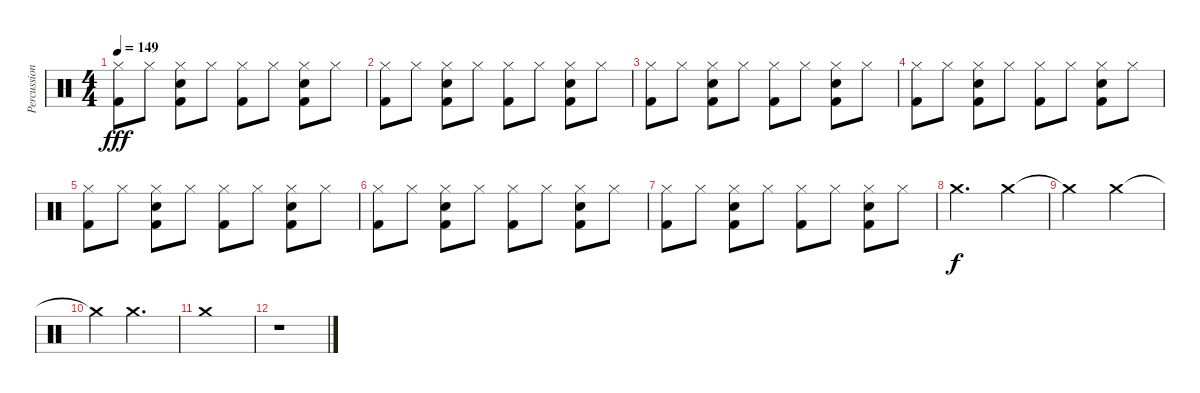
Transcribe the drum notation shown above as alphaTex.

\track ("Percussion" "Percussion") {instrument percussion}
\staff {score}
\articulation defaults
\ts (4 4)
\tempo 149
\clef neutral
\ks c
("Hi-Hat (closed)" "Kick (hit) 2").8{dy fff} "Hi-Hat (closed)".8 ("Hi-Hat (closed)" "Snare (hit) 2" "Kick (hit) 2").8 "Hi-Hat (closed)".8 ("Hi-Hat (closed)" "Kick (hit) 2").8 "Hi-Hat (closed)".8 ("Hi-Hat (closed)" "Snare (hit) 2" "Kick (hit) 2").8 "Hi-Hat (closed)".8 |
("Hi-Hat (closed)" "Kick (hit) 2").8 "Hi-Hat (closed)".8 ("Hi-Hat (closed)" "Snare (hit) 2" "Kick (hit) 2").8 "Hi-Hat (closed)".8 ("Hi-Hat (closed)" "Kick (hit) 2").8 "Hi-Hat (closed)".8 ("Hi-Hat (closed)" "Snare (hit) 2" "Kick (hit) 2").8 "Hi-Hat (closed)".8 |
("Hi-Hat (closed)" "Kick (hit) 2").8 "Hi-Hat (closed)".8 ("Hi-Hat (closed)" "Snare (hit) 2" "Kick (hit) 2").8 "Hi-Hat (closed)".8 ("Hi-Hat (closed)" "Kick (hit) 2").8 "Hi-Hat (closed)".8 ("Hi-Hat (closed)" "Snare (hit) 2" "Kick (hit) 2").8 "Hi-Hat (closed)".8 |
("Hi-Hat (closed)" "Kick (hit) 2").8 "Hi-Hat (closed)".8 ("Hi-Hat (closed)" "Snare (hit) 2" "Kick (hit) 2").8 "Hi-Hat (closed)".8 ("Hi-Hat (closed)" "Kick (hit) 2").8 "Hi-Hat (closed)".8 ("Hi-Hat (closed)" "Snare (hit) 2" "Kick (hit) 2").8 "Hi-Hat (closed)".8 |
("Hi-Hat (closed)" "Kick (hit) 2").8 "Hi-Hat (closed)".8 ("Hi-Hat (closed)" "Snare (hit) 2" "Kick (hit) 2").8 "Hi-Hat (closed)".8 ("Hi-Hat (closed)" "Kick (hit) 2").8 "Hi-Hat (closed)".8 ("Hi-Hat (closed)" "Snare (hit) 2" "Kick (hit) 2").8 "Hi-Hat (closed)".8 |
("Hi-Hat (closed)" "Kick (hit) 2").8 "Hi-Hat (closed)".8 ("Hi-Hat (closed)" "Snare (hit) 2" "Kick (hit) 2").8 "Hi-Hat (closed)".8 ("Hi-Hat (closed)" "Kick (hit) 2").8 "Hi-Hat (closed)".8 ("Hi-Hat (closed)" "Snare (hit) 2" "Kick (hit) 2").8 "Hi-Hat (closed)".8 |
("Hi-Hat (closed)" "Kick (hit) 2").8 "Hi-Hat (closed)".8 ("Hi-Hat (closed)" "Snare (hit) 2" "Kick (hit) 2").8 "Hi-Hat (closed)".8 ("Hi-Hat (closed)" "Kick (hit) 2").8 "Hi-Hat (closed)".8 ("Hi-Hat (closed)" "Snare (hit) 2" "Kick (hit) 2").8 "Hi-Hat (closed)".8 |
"Crash medium (hit)".2{d dy f} "Crash medium (hit)".4 |
"Crash medium (hit)"{t}.2 "Crash medium (hit)".2 |
"Crash medium (hit)"{t}.4 "Crash medium (hit)".2{d} |
"Crash medium (hit)".1 |
r.1
